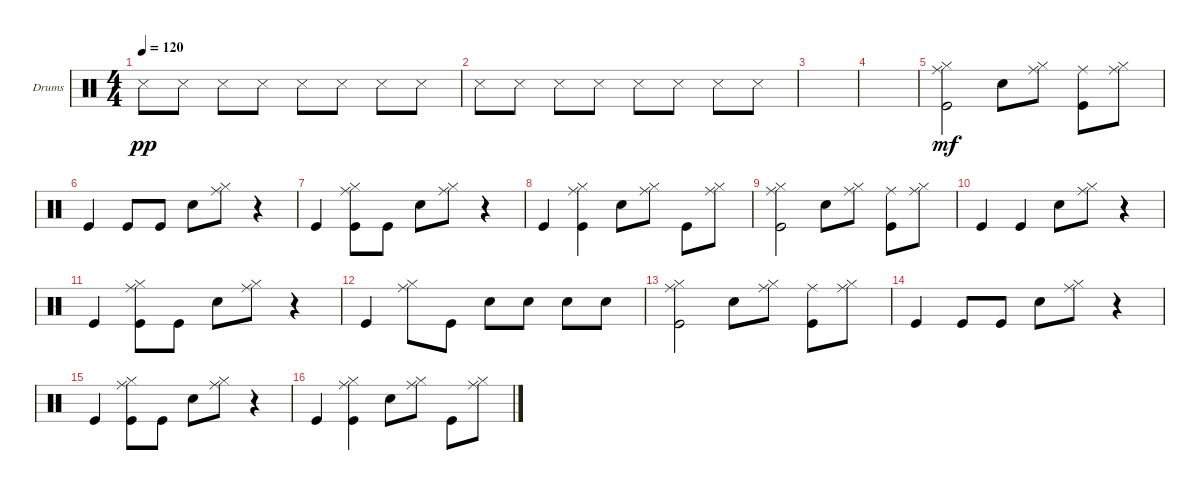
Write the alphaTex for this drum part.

\defaultSystemsLayout 4
\bracketExtendMode groupsimilarinstruments
\firstSystemTrackNameOrientation horizontal
\otherSystemsTrackNameOrientation horizontal
\track ("Drumkit" "Drums") {instrument percussion}
\staff {score}
\articulation defaults
\ts (4 4)
\tempo 120
\clef neutral
\scale
0.333333
\ks c "Snare (side stick) 3".8{dy pp} "Snare (side stick) 3".8 "Snare (side stick) 3".8 "Snare (side stick) 3".8 "Snare (side stick) 3".8 "Snare (side stick) 3".8 "Snare (side stick) 3".8 "Snare (side stick) 3".8
|
\scale
0.333333 "Snare (side stick) 3".8 "Snare (side stick) 3".8 "Snare (side stick) 3".8 "Snare (side stick) 3".8 "Snare (side stick) 3".8 "Snare (side stick) 3".8 "Snare (side stick) 3".8 "Snare (side stick) 3".8 |
\scale
0.333333 |
\scale
0.333333 |
\scale
0.333333 ("Kick (hit)" "Ride (middle)" "Hi-Hat (closed)").2{dy mf} "Snare (hit) 2".8 ("Hi-Hat (closed)" "Ride (middle)").8 ("Kick (hit)" "Ride (middle)").8 ("Hi-Hat (closed)" "Ride (middle)").8 |
\scale
0.333333 "Kick (hit)".4 "Kick (hit)".8 "Kick (hit)".8 "Snare (hit) 2".8 ("Hi-Hat (closed)" "Ride (middle)").8 r.4 |
\scale
0.333333 "Kick (hit)".4 ("Kick (hit)" "Ride (middle)" "Hi-Hat (closed)").8 "Kick (hit)".8 "Snare (hit) 2".8 ("Hi-Hat (closed)" "Ride (middle)").8 r.4 |
\scale
0.333333 "Kick (hit)".4 ("Kick (hit)" "Ride (middle)" "Hi-Hat (closed)").4 "Snare (hit) 2".8 ("Ride (middle)" "Hi-Hat (closed)").8 "Kick (hit)".8 ("Ride (middle)" "Hi-Hat (closed)").8 |
\scale
0.333333 ("Kick (hit)" "Ride (middle)" "Hi-Hat (closed)").2 "Snare (hit) 2".8 ("Hi-Hat (closed)" "Ride (middle)").8 ("Kick (hit)" "Ride (middle)").8 ("Hi-Hat (closed)" "Ride (middle)").8 |
\scale
0.333333 "Kick (hit)".4 "Kick (hit)".4 "Snare (hit) 2".8 ("Hi-Hat (closed)" "Ride (middle)").8 r.4 |
\scale
0.333333 "Kick (hit)".4 ("Kick (hit)" "Ride (middle)" "Hi-Hat (closed)").8 "Kick (hit)".8 "Snare (hit) 2".8 ("Hi-Hat (closed)" "Ride (middle)").8 r.4 |
\scale
0.333333 "Kick (hit)".4 ("Ride (middle)" "Hi-Hat (closed)").8 "Kick (hit)".8 "Snare (hit) 2".8 "Snare (hit) 2".8 "Snare (hit) 2".8 "Snare (hit) 2".8 |
\scale
0.333333 ("Kick (hit)" "Ride (middle)" "Hi-Hat (closed)").2 "Snare (hit) 2".8 ("Hi-Hat (closed)" "Ride (middle)").8 ("Kick (hit)" "Ride (middle)").8 ("Hi-Hat (closed)" "Ride (middle)").8 |
\scale
0.333333 "Kick (hit)".4 "Kick (hit)".8 "Kick (hit)".8 "Snare (hit) 2".8 ("Hi-Hat (closed)" "Ride (middle)").8 r.4 |
\scale
0.333333 "Kick (hit)".4 ("Kick (hit)" "Ride (middle)" "Hi-Hat (closed)").8 "Kick (hit)".8 "Snare (hit) 2".8 ("Hi-Hat (closed)" "Ride (middle)").8 r.4 |
\scale
0.333333 "Kick (hit)".4 ("Kick (hit)" "Ride (middle)" "Hi-Hat (closed)").4 "Snare (hit) 2".8 ("Ride (middle)" "Hi-Hat (closed)").8 "Kick (hit)".8 ("Ride (middle)" "Hi-Hat (closed)").8
